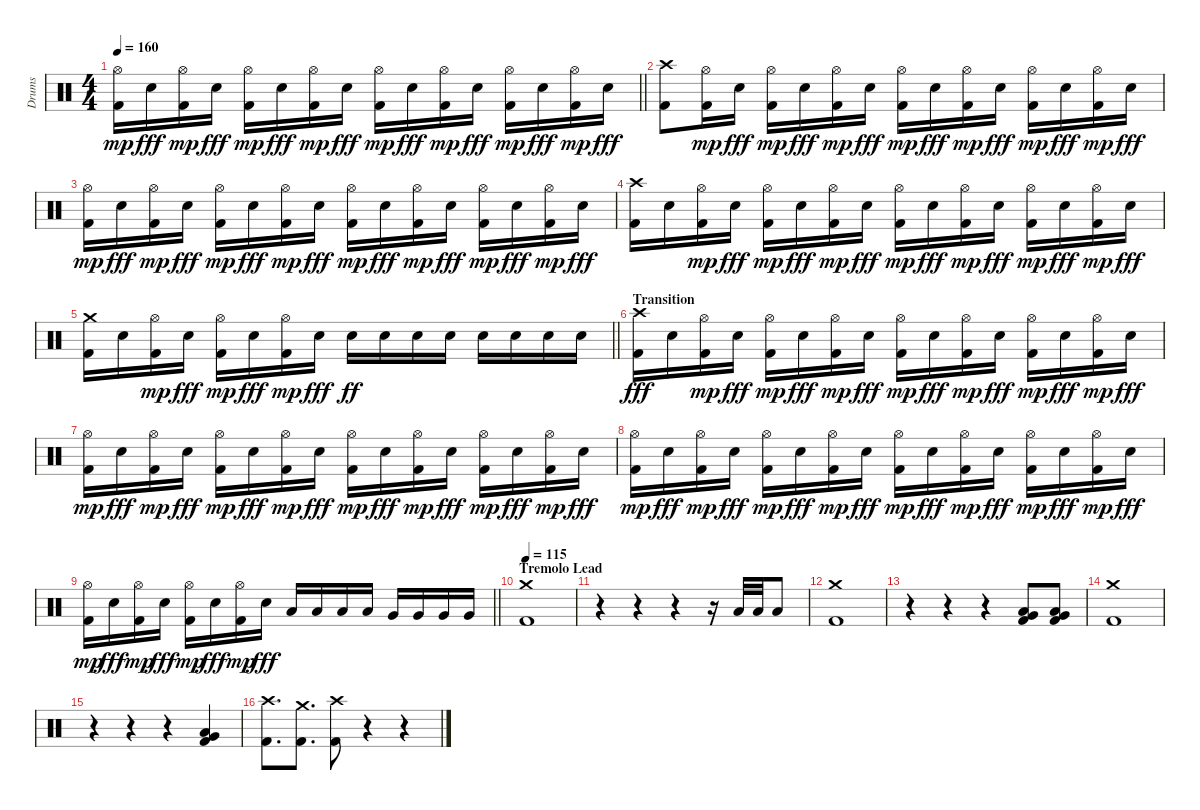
\track ("Drums" "Drums") {instrument percussion}
\staff {score}
\articulation defaults
\ts (4 4)
\tempo 160
\clef neutral
\barLineRight lightlight
\ks c
("Kick (hit) 2" "Hi-Hat (open)").16{dy mp} "Electric Snare (hit)".16{dy fff} ("Kick (hit) 2" "Hi-Hat (open)").16{dy mp} "Electric Snare (hit)".16{dy fff} ("Kick (hit) 2" "Hi-Hat (open)").16{dy mp} "Electric Snare (hit)".16{dy fff} ("Kick (hit) 2" "Hi-Hat (open)").16{dy mp} "Electric Snare (hit)".16{dy fff} ("Kick (hit) 2" "Hi-Hat (open)").16{dy mp} "Electric Snare (hit)".16{dy fff} ("Kick (hit) 2" "Hi-Hat (open)").16{dy mp} "Electric Snare (hit)".16{dy fff} ("Kick (hit) 2" "Hi-Hat (open)").16{dy mp} "Electric Snare (hit)".16{dy fff} ("Kick (hit) 2" "Hi-Hat (open)").16{dy mp} "Electric Snare (hit)".16{dy fff} |
\section ("" "")
("Kick (hit) 2" "Crash high (hit)").8 ("Kick (hit) 2" "Hi-Hat (open)").16{dy mp} "Electric Snare (hit)".16{dy fff} ("Kick (hit) 2" "Hi-Hat (open)").16{dy mp} "Electric Snare (hit)".16{dy fff} ("Kick (hit) 2" "Hi-Hat (open)").16{dy mp} "Electric Snare (hit)".16{dy fff} ("Kick (hit) 2" "Hi-Hat (open)").16{dy mp} "Electric Snare (hit)".16{dy fff} ("Kick (hit) 2" "Hi-Hat (open)").16{dy mp} "Electric Snare (hit)".16{dy fff} ("Kick (hit) 2" "Hi-Hat (open)").16{dy mp} "Electric Snare (hit)".16{dy fff} ("Kick (hit) 2" "Hi-Hat (open)").16{dy mp} "Electric Snare (hit)".16{dy fff} |
("Kick (hit) 2" "Hi-Hat (open)").16{dy mp} "Electric Snare (hit)".16{dy fff} ("Kick (hit) 2" "Hi-Hat (open)").16{dy mp} "Electric Snare (hit)".16{dy fff} ("Kick (hit) 2" "Hi-Hat (open)").16{dy mp} "Electric Snare (hit)".16{dy fff} ("Kick (hit) 2" "Hi-Hat (open)").16{dy mp} "Electric Snare (hit)".16{dy fff} ("Kick (hit) 2" "Hi-Hat (open)").16{dy mp} "Electric Snare (hit)".16{dy fff} ("Kick (hit) 2" "Hi-Hat (open)").16{dy mp} "Electric Snare (hit)".16{dy fff} ("Kick (hit) 2" "Hi-Hat (open)").16{dy mp} "Electric Snare (hit)".16{dy fff} ("Kick (hit) 2" "Hi-Hat (open)").16{dy mp} "Electric Snare (hit)".16{dy fff} |
("Kick (hit) 2" "Crash high (hit)").16 "Electric Snare (hit)".16 ("Kick (hit) 2" "Hi-Hat (open)").16{dy mp} "Electric Snare (hit)".16{dy fff} ("Kick (hit) 2" "Hi-Hat (open)").16{dy mp} "Electric Snare (hit)".16{dy fff} ("Kick (hit) 2" "Hi-Hat (open)").16{dy mp} "Electric Snare (hit)".16{dy fff} ("Kick (hit) 2" "Hi-Hat (open)").16{dy mp} "Electric Snare (hit)".16{dy fff} ("Kick (hit) 2" "Hi-Hat (open)").16{dy mp} "Electric Snare (hit)".16{dy fff} ("Kick (hit) 2" "Hi-Hat (open)").16{dy mp} "Electric Snare (hit)".16{dy fff} ("Kick (hit) 2" "Hi-Hat (open)").16{dy mp} "Electric Snare (hit)".16{dy fff} |
\barLineRight lightlight
("Kick (hit) 2" "Crash medium (hit)").16 "Electric Snare (hit)".16 ("Kick (hit) 2" "Hi-Hat (open)").16{dy mp} "Electric Snare (hit)".16{dy fff} ("Kick (hit) 2" "Hi-Hat (open)").16{dy mp} "Electric Snare (hit)".16{dy fff} ("Kick (hit) 2" "Hi-Hat (open)").16{dy mp} "Electric Snare (hit)".16{dy fff} "Electric Snare (hit)".16{dy ff} "Electric Snare (hit)".16 "Electric Snare (hit)".16 "Electric Snare (hit)".16 "Electric Snare (hit)".16 "Electric Snare (hit)".16 "Electric Snare (hit)".16 "Electric Snare (hit)".16 |
\section ("" "Transition")
("Kick (hit) 2" "Crash high (hit)").16{dy fff} "Electric Snare (hit)".16 ("Kick (hit) 2" "Hi-Hat (open)").16{dy mp} "Electric Snare (hit)".16{dy fff} ("Kick (hit) 2" "Hi-Hat (open)").16{dy mp} "Electric Snare (hit)".16{dy fff} ("Kick (hit) 2" "Hi-Hat (open)").16{dy mp} "Electric Snare (hit)".16{dy fff} ("Kick (hit) 2" "Hi-Hat (open)").16{dy mp} "Electric Snare (hit)".16{dy fff} ("Kick (hit) 2" "Hi-Hat (open)").16{dy mp} "Electric Snare (hit)".16{dy fff} ("Kick (hit) 2" "Hi-Hat (open)").16{dy mp} "Electric Snare (hit)".16{dy fff} ("Kick (hit) 2" "Hi-Hat (open)").16{dy mp} "Electric Snare (hit)".16{dy fff} |
("Kick (hit) 2" "Hi-Hat (open)").16{dy mp} "Electric Snare (hit)".16{dy fff} ("Kick (hit) 2" "Hi-Hat (open)").16{dy mp} "Electric Snare (hit)".16{dy fff} ("Kick (hit) 2" "Hi-Hat (open)").16{dy mp} "Electric Snare (hit)".16{dy fff} ("Kick (hit) 2" "Hi-Hat (open)").16{dy mp} "Electric Snare (hit)".16{dy fff} ("Kick (hit) 2" "Hi-Hat (open)").16{dy mp} "Electric Snare (hit)".16{dy fff} ("Kick (hit) 2" "Hi-Hat (open)").16{dy mp} "Electric Snare (hit)".16{dy fff} ("Kick (hit) 2" "Hi-Hat (open)").16{dy mp} "Electric Snare (hit)".16{dy fff} ("Kick (hit) 2" "Hi-Hat (open)").16{dy mp} "Electric Snare (hit)".16{dy fff} |
("Kick (hit) 2" "Hi-Hat (open)").16{dy mp} "Electric Snare (hit)".16{dy fff} ("Kick (hit) 2" "Hi-Hat (open)").16{dy mp} "Electric Snare (hit)".16{dy fff} ("Kick (hit) 2" "Hi-Hat (open)").16{dy mp} "Electric Snare (hit)".16{dy fff} ("Kick (hit) 2" "Hi-Hat (open)").16{dy mp} "Electric Snare (hit)".16{dy fff} ("Kick (hit) 2" "Hi-Hat (open)").16{dy mp} "Electric Snare (hit)".16{dy fff} ("Kick (hit) 2" "Hi-Hat (open)").16{dy mp} "Electric Snare (hit)".16{dy fff} ("Kick (hit) 2" "Hi-Hat (open)").16{dy mp} "Electric Snare (hit)".16{dy fff} ("Kick (hit) 2" "Hi-Hat (open)").16{dy mp} "Electric Snare (hit)".16{dy fff} |
\barLineRight lightlight
("Kick (hit) 2" "Hi-Hat (open)").16{dy mp} "Electric Snare (hit)".16{dy fff} ("Kick (hit) 2" "Hi-Hat (open)").16{dy mp} "Electric Snare (hit)".16{dy fff} ("Kick (hit) 2" "Hi-Hat (open)").16{dy mp} "Electric Snare (hit)".16{dy fff} ("Kick (hit) 2" "Hi-Hat (open)").16{dy mp} "Electric Snare (hit)".16{dy fff} "Low Tom (hit)".16 "Low Tom (hit)".16 "Low Tom (hit)".16 "Low Tom (hit)".16 "Very Low Tom (hit)".16 "Very Low Tom (hit)".16 "Very Low Tom (hit)".16 "Very Low Tom (hit)".16 |
\section ("" "Tremolo Lead")
\tempo 115
("Kick (hit) 2" "Crash medium (hit)").1 |
r.4 r.4 r.4 r.16 "Low Floor Tom (hit)".32 "Low Floor Tom (hit)".32 "Low Floor Tom (hit)".8 |
("Kick (hit) 2" "Crash medium (hit)").1 |
r.4 r.4 r.4 ("Kick (hit) 2" "Low Tom (hit)" "Very Low Tom (hit)").8 ("Kick (hit) 2" "Low Tom (hit)" "Very Low Tom (hit)").8 |
("Kick (hit) 2" "Crash medium (hit)").1 |
r.4 r.4 r.4 ("Kick (hit) 2" "Low Floor Tom (hit)" "Very Low Tom (hit)").4 |
("Kick (hit) 2" "Crash high (hit)").8{d} ("Kick (hit) 2" "Crash medium (hit)").8{d} ("Kick (hit) 2" "Crash high (hit)").8 r.4 r.4
